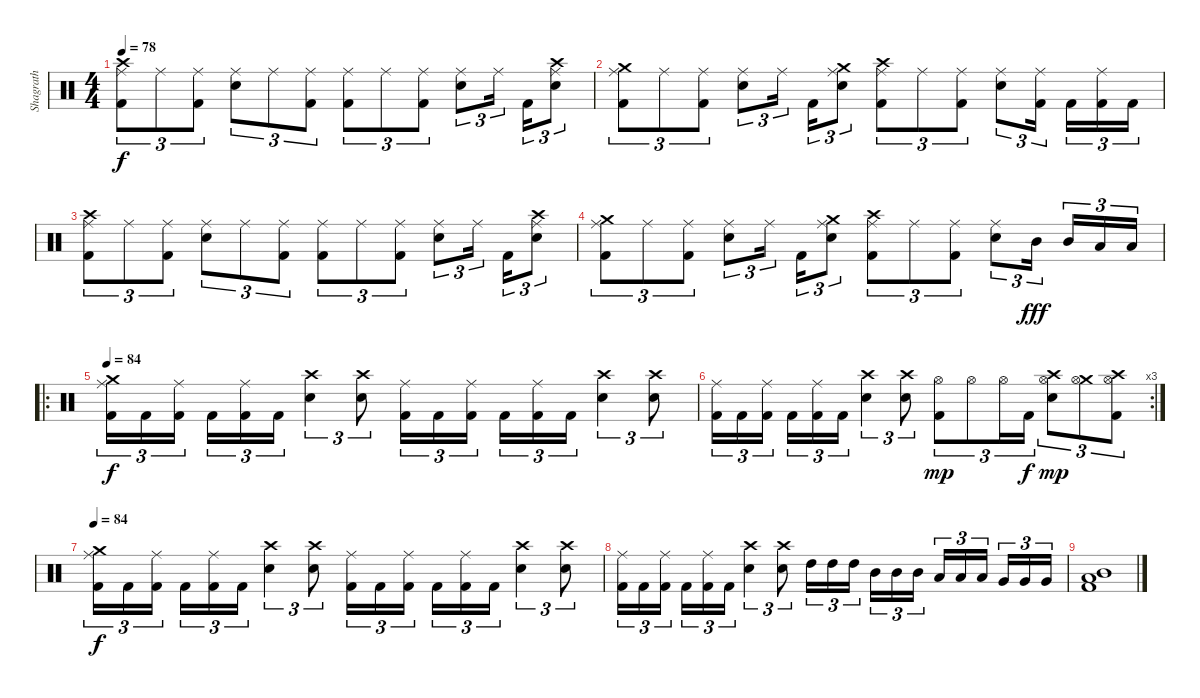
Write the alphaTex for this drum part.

\track ("Shagrath" "Shagrath") {instrument percussion}
\staff {score}
\articulation defaults
\ts (4 4)
\tempo 78
\clef neutral
\ks c
("Crash high (hit)" "Ride (middle)" "Kick (hit) 2").8{tu (3 2) dy f} "Ride (middle)".8{tu (3 2)} ("Ride (middle)" "Kick (hit) 2").8{tu (3 2)} ("Ride (middle)" "Electric Snare (hit)").8{tu (3 2)} "Ride (middle)".8{tu (3 2)} ("Ride (middle)" "Kick (hit) 2").8{tu (3 2)} ("Ride (middle)" "Kick (hit) 2").8{tu (3 2)} "Ride (middle)".8{tu (3 2)} ("Ride (middle)" "Kick (hit) 2").8{tu (3 2)} ("Ride (middle)" "Electric Snare (hit)").8{tu (3 2)} "Ride (middle)".16{tu (3 2)} "Kick (hit) 2".16{tu (3 2)} ("Crash high (hit)" "Ride (middle)" "Electric Snare (hit)").8{tu (3 2)} |
("Crash medium (hit)" "Ride (middle)" "Kick (hit) 2").8{tu (3 2)} "Ride (middle)".8{tu (3 2)} ("Ride (middle)" "Kick (hit) 2").8{tu (3 2)} ("Ride (middle)" "Electric Snare (hit)").8{tu (3 2)} "Ride (middle)".16{tu (3 2)} "Kick (hit) 2".16{tu (3 2)} ("Crash medium (hit)" "Ride (middle)" "Electric Snare (hit)").8{tu (3 2)} ("Crash high (hit)" "Ride (middle)" "Kick (hit) 2").8{tu (3 2)} "Ride (middle)".8{tu (3 2)} ("Ride (middle)" "Kick (hit) 2").8{tu (3 2)} ("Ride (middle)" "Electric Snare (hit)").8{tu (3 2)} ("Ride (middle)" "Kick (hit) 2").16{tu (3 2)} "Kick (hit) 2".16{tu (3 2)} ("Ride (middle)" "Kick (hit) 2").16{tu (3 2)} "Kick (hit) 2".16{tu (3 2)} |
("Crash high (hit)" "Ride (middle)" "Kick (hit) 2").8{tu (3 2)} "Ride (middle)".8{tu (3 2)} ("Ride (middle)" "Kick (hit) 2").8{tu (3 2)} ("Ride (middle)" "Electric Snare (hit)").8{tu (3 2)} "Ride (middle)".8{tu (3 2)} ("Ride (middle)" "Kick (hit) 2").8{tu (3 2)} ("Ride (middle)" "Kick (hit) 2").8{tu (3 2)} "Ride (middle)".8{tu (3 2)} ("Ride (middle)" "Kick (hit) 2").8{tu (3 2)} ("Ride (middle)" "Electric Snare (hit)").8{tu (3 2)} "Ride (middle)".16{tu (3 2)} "Kick (hit) 2".16{tu (3 2)} ("Crash high (hit)" "Ride (middle)" "Electric Snare (hit)").8{tu (3 2)} |
("Crash medium (hit)" "Ride (middle)" "Kick (hit) 2").8{tu (3 2)} "Ride (middle)".8{tu (3 2)} ("Ride (middle)" "Kick (hit) 2").8{tu (3 2)} ("Ride (middle)" "Electric Snare (hit)").8{tu (3 2)} "Ride (middle)".16{tu (3 2)} "Kick (hit) 2".16{tu (3 2)} ("Crash medium (hit)" "Ride (middle)" "Electric Snare (hit)").8{tu (3 2)} ("Crash high (hit)" "Ride (middle)" "Kick (hit) 2").8{tu (3 2)} "Ride (middle)".8{tu (3 2)} ("Ride (middle)" "Kick (hit) 2").8{tu (3 2)} ("Ride (middle)" "Electric Snare (hit)").8{tu (3 2)} "Mid Tom (hit)".16{tu (3 2) dy fff} "Mid Tom (hit)".16{tu (3 2)} "Low Tom (hit)".16{tu (3 2)} "Low Tom (hit)".16{tu (3 2)} |
\ro
\tempo 84
("Crash medium (hit)" "Ride (middle)" "Kick (hit) 2").16{tu (3 2) dy f} "Kick (hit) 2".16{tu (3 2)} ("Ride (middle)" "Kick (hit) 2").16{tu (3 2)} "Kick (hit) 2".16{tu (3 2)} ("Ride (middle)" "Kick (hit) 2").16{tu (3 2)} "Kick (hit) 2".16{tu (3 2)} ("Crash high (hit)" "Electric Snare (hit)").4{tu (3 2)} ("Crash high (hit)" "Electric Snare (hit)").8{tu (3 2)} ("Ride (middle)" "Kick (hit) 2").16{tu (3 2)} "Kick (hit) 2".16{tu (3 2)} ("Ride (middle)" "Kick (hit) 2").16{tu (3 2)} "Kick (hit) 2".16{tu (3 2)} ("Ride (middle)" "Kick (hit) 2").16{tu (3 2)} "Kick (hit) 2".16{tu (3 2)} ("Crash high (hit)" "Electric Snare (hit)").4{tu (3 2)} ("Crash high (hit)" "Electric Snare (hit)").8{tu (3 2)} |
\rc 3
("Ride (middle)" "Kick (hit) 2").16{tu (3 2)} "Kick (hit) 2".16{tu (3 2)} ("Ride (middle)" "Kick (hit) 2").16{tu (3 2)} "Kick (hit) 2".16{tu (3 2)} ("Ride (middle)" "Kick (hit) 2").16{tu (3 2)} "Kick (hit) 2".16{tu (3 2)} ("Crash high (hit)" "Electric Snare (hit)").4{tu (3 2)} ("Crash high (hit)" "Electric Snare (hit)").8{tu (3 2)} ("Hi-Hat (open)" "Kick (hit) 2").8{tu (3 2) dy mp} "Hi-Hat (open)".8{tu (3 2)} "Hi-Hat (open)".16{tu (3 2)} "Kick (hit) 2".16{tu (3 2) dy f} ("Crash high (hit)" "Hi-Hat (open)" "Electric Snare (hit)").8{tu (3 2) dy mp} ("Crash medium (hit)" "Hi-Hat (open)").8{tu (3 2)} ("Crash high (hit)" "Hi-Hat (open)" "Kick (hit) 2").8{tu (3 2)} |
\tempo 84
("Crash medium (hit)" "Ride (middle)" "Kick (hit) 2").16{tu (3 2) dy f} "Kick (hit) 2".16{tu (3 2)} ("Ride (middle)" "Kick (hit) 2").16{tu (3 2)} "Kick (hit) 2".16{tu (3 2)} ("Ride (middle)" "Kick (hit) 2").16{tu (3 2)} "Kick (hit) 2".16{tu (3 2)} ("Crash high (hit)" "Electric Snare (hit)").4{tu (3 2)} ("Crash high (hit)" "Electric Snare (hit)").8{tu (3 2)} ("Ride (middle)" "Kick (hit) 2").16{tu (3 2)} "Kick (hit) 2".16{tu (3 2)} ("Ride (middle)" "Kick (hit) 2").16{tu (3 2)} "Kick (hit) 2".16{tu (3 2)} ("Ride (middle)" "Kick (hit) 2").16{tu (3 2)} "Kick (hit) 2".16{tu (3 2)} ("Crash high (hit)" "Electric Snare (hit)").4{tu (3 2)} ("Crash high (hit)" "Electric Snare (hit)").8{tu (3 2)} |
("Ride (middle)" "Kick (hit) 2").16{tu (3 2)} "Kick (hit) 2".16{tu (3 2)} ("Ride (middle)" "Kick (hit) 2").16{tu (3 2)} "Kick (hit) 2".16{tu (3 2)} ("Ride (middle)" "Kick (hit) 2").16{tu (3 2)} "Kick (hit) 2".16{tu (3 2)} ("Crash high (hit)" "Electric Snare (hit)").4{tu (3 2)} ("Crash high (hit)" "Electric Snare (hit)").8{tu (3 2)} "High Tom (hit)".16{tu (3 2)} "High Tom (hit)".16{tu (3 2)} "High Tom (hit)".16{tu (3 2)} "Mid Tom (hit)".16{tu (3 2)} "Mid Tom (hit)".16{tu (3 2)} "Mid Tom (hit)".16{tu (3 2)} "Low Tom (hit)".16{tu (3 2)} "Low Tom (hit)".16{tu (3 2)} "Low Tom (hit)".16{tu (3 2)} "Very Low Tom (hit)".16{tu (3 2)} "Very Low Tom (hit)".16{tu (3 2)} "Very Low Tom (hit)".16{tu (3 2)} |
("Low Tom (hit)" "Mid Tom (hit)" "Kick (hit) 2").1
